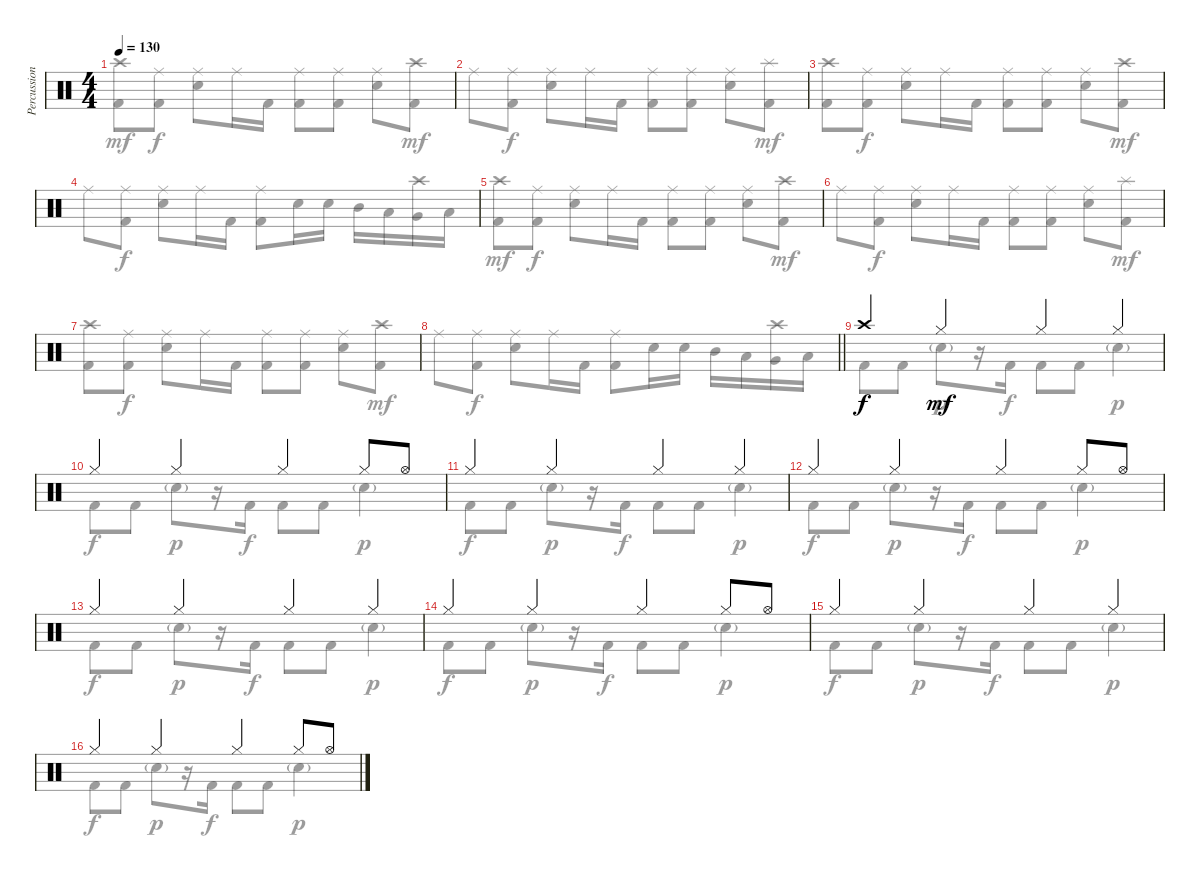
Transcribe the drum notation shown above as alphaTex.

\track ("Percussion" "Percussion") {instrument percussion}
\staff {score}
\articulation defaults
\voice
\ts (4 4)
\tempo 130
\clef neutral
\ks c
|
|
|
|
|
|
|
\barLineRight lightlight
|
"Crash high (hit)".4{dy f} "Hi-Hat (closed)".4{dy mf} "Hi-Hat (closed)".4 "Hi-Hat (closed)".4 |
"Hi-Hat (closed)".4 "Hi-Hat (closed)".4 "Hi-Hat (closed)".4 "Hi-Hat (closed)".8 "Hi-Hat (open)".8 |
"Hi-Hat (closed)".4 "Hi-Hat (closed)".4 "Hi-Hat (closed)".4 "Hi-Hat (closed)".4 |
"Hi-Hat (closed)".4 "Hi-Hat (closed)".4 "Hi-Hat (closed)".4 "Hi-Hat (closed)".8 "Hi-Hat (open)".8 |
"Hi-Hat (closed)".4 "Hi-Hat (closed)".4 "Hi-Hat (closed)".4 "Hi-Hat (closed)".4 |
"Hi-Hat (closed)".4 "Hi-Hat (closed)".4 "Hi-Hat (closed)".4 "Hi-Hat (closed)".8 "Hi-Hat (open)".8 |
"Hi-Hat (closed)".4 "Hi-Hat (closed)".4 "Hi-Hat (closed)".4 "Hi-Hat (closed)".4 |
"Hi-Hat (closed)".4 "Hi-Hat (closed)".4 "Hi-Hat (closed)".4 "Hi-Hat (closed)".8 "Hi-Hat (open)".8
\voice
\clef neutral
\ottava regular
\simile none
\ks c
("Crash high (hit)" "Kick (hit) 2").8{dy mf} ("Ride (middle)" "Kick (hit) 2").8{dy f} ("Ride (middle)" "Electric Snare (hit)").8 "Ride (middle)".16 "Kick (hit) 2".16 ("Ride (middle)" "Kick (hit) 2").8 ("Ride (middle)" "Kick (hit) 2").8 ("Ride (middle)" "Electric Snare (hit)").8 ("Crash high (hit)" "Kick (hit) 2").8{dy mf} |
"Ride (middle)".8 ("Ride (middle)" "Kick (hit) 2").8{dy f} ("Ride (middle)" "Electric Snare (hit)").8 "Ride (middle)".16 "Kick (hit) 2".16 ("Ride (middle)" "Kick (hit) 2").8 ("Ride (middle)" "Kick (hit) 2").8 ("Ride (middle)" "Electric Snare (hit)").8 ("Splash (hit)" "Kick (hit) 2").8{dy mf} |
("Crash high (hit)" "Kick (hit) 2").8 ("Ride (middle)" "Kick (hit) 2").8{dy f} ("Ride (middle)" "Electric Snare (hit)").8 "Ride (middle)".16 "Kick (hit) 2".16 ("Ride (middle)" "Kick (hit) 2").8 ("Ride (middle)" "Kick (hit) 2").8 ("Ride (middle)" "Electric Snare (hit)").8 ("Crash high (hit)" "Kick (hit) 2").8{dy mf} |
"Ride (middle)".8 ("Ride (middle)" "Kick (hit) 2").8{dy f} ("Ride (middle)" "Electric Snare (hit)").8 "Ride (middle)".16 "Kick (hit) 2".16 ("Ride (middle)" "Kick (hit) 2").8 "Electric Snare (hit)".16 "Electric Snare (hit)".16 "Mid Tom (hit)".16 "Low Tom (hit)".16 ("Crash high (hit)" "Very Low Tom (hit)").16 "Low Floor Tom (hit)".16 |
("Crash high (hit)" "Kick (hit) 2").8{dy mf} ("Ride (middle)" "Kick (hit) 2").8{dy f} ("Ride (middle)" "Electric Snare (hit)").8 "Ride (middle)".16 "Kick (hit) 2".16 ("Ride (middle)" "Kick (hit) 2").8 ("Ride (middle)" "Kick (hit) 2").8 ("Ride (middle)" "Electric Snare (hit)").8 ("Crash high (hit)" "Kick (hit) 2").8{dy mf} |
"Ride (middle)".8 ("Ride (middle)" "Kick (hit) 2").8{dy f} ("Ride (middle)" "Electric Snare (hit)").8 "Ride (middle)".16 "Kick (hit) 2".16 ("Ride (middle)" "Kick (hit) 2").8 ("Ride (middle)" "Kick (hit) 2").8 ("Ride (middle)" "Electric Snare (hit)").8 ("Splash (hit)" "Kick (hit) 2").8{dy mf} |
("Crash high (hit)" "Kick (hit) 2").8 ("Ride (middle)" "Kick (hit) 2").8{dy f} ("Ride (middle)" "Electric Snare (hit)").8 "Ride (middle)".16 "Kick (hit) 2".16 ("Ride (middle)" "Kick (hit) 2").8 ("Ride (middle)" "Kick (hit) 2").8 ("Ride (middle)" "Electric Snare (hit)").8 ("Crash high (hit)" "Kick (hit) 2").8{dy mf} |
\barLineRight lightlight "Ride (middle)".8
("Ride (middle)" "Kick (hit) 2").8{dy f} ("Ride (middle)" "Electric Snare (hit)").8 "Ride (middle)".16 "Kick (hit) 2".16 ("Ride (middle)" "Kick (hit) 2").8 "Electric Snare (hit)".16 "Electric Snare (hit)".16 "Mid Tom (hit)".16 "Low Tom (hit)".16 ("Crash high (hit)" "Very Low Tom (hit)").16 "Low Floor Tom (hit)".16 |
"Kick (hit) 2".8 "Kick (hit) 2".8 "Electric Snare (hit)"{g}.8{dy p} r.16 "Kick (hit) 2".16{dy f} "Kick (hit) 2".8 "Kick (hit) 2".8 "Electric Snare (hit)"{g}.4{dy p} |
"Kick (hit) 2".8{dy f} "Kick (hit) 2".8 "Electric Snare (hit)"{g}.8{dy p} r.16 "Kick (hit) 2".16{dy f} "Kick (hit) 2".8 "Kick (hit) 2".8 "Electric Snare (hit)"{g}.4{dy p} |
"Kick (hit) 2".8{dy f} "Kick (hit) 2".8 "Electric Snare (hit)"{g}.8{dy p} r.16 "Kick (hit) 2".16{dy f} "Kick (hit) 2".8 "Kick (hit) 2".8 "Electric Snare (hit)"{g}.4{dy p} |
"Kick (hit) 2".8{dy f} "Kick (hit) 2".8 "Electric Snare (hit)"{g}.8{dy p} r.16 "Kick (hit) 2".16{dy f} "Kick (hit) 2".8 "Kick (hit) 2".8 "Electric Snare (hit)"{g}.4{dy p} |
"Kick (hit) 2".8{dy f} "Kick (hit) 2".8 "Electric Snare (hit)"{g}.8{dy p} r.16 "Kick (hit) 2".16{dy f} "Kick (hit) 2".8 "Kick (hit) 2".8 "Electric Snare (hit)"{g}.4{dy p} |
"Kick (hit) 2".8{dy f} "Kick (hit) 2".8 "Electric Snare (hit)"{g}.8{dy p} r.16 "Kick (hit) 2".16{dy f} "Kick (hit) 2".8 "Kick (hit) 2".8 "Electric Snare (hit)"{g}.4{dy p} |
"Kick (hit) 2".8{dy f} "Kick (hit) 2".8 "Electric Snare (hit)"{g}.8{dy p} r.16 "Kick (hit) 2".16{dy f} "Kick (hit) 2".8 "Kick (hit) 2".8 "Electric Snare (hit)"{g}.4{dy p} |
"Kick (hit) 2".8{dy f} "Kick (hit) 2".8 "Electric Snare (hit)"{g}.8{dy p} r.16 "Kick (hit) 2".16{dy f} "Kick (hit) 2".8 "Kick (hit) 2".8 "Electric Snare (hit)"{g}.4{dy p}
